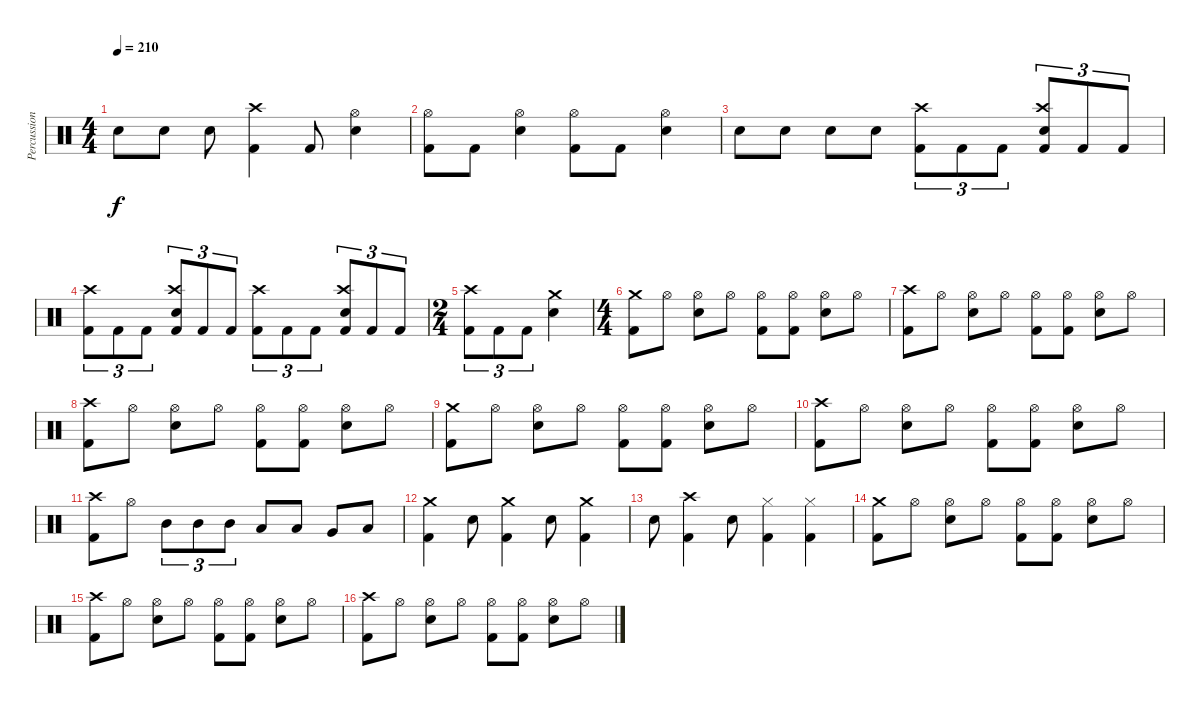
\track ("Percussion" "Percussion") {instrument percussion}
\staff {score}
\articulation defaults
\ts (4 4)
\tempo 210
\clef neutral
\ks c "Snare (hit) 2".8{dy f} "Snare (hit) 2".8 "Snare (hit) 2".8
("Crash high (hit)" "Kick (hit) 2").4 "Kick (hit) 2".8 ("Hi-Hat (open)" "Snare (hit) 2").4 |
("Hi-Hat (open)" "Kick (hit) 2").8 "Kick (hit) 2".8 ("Hi-Hat (open)" "Snare (hit) 2").4 ("Hi-Hat (open)" "Kick (hit) 2").8 "Kick (hit) 2".8 ("Hi-Hat (open)" "Snare (hit) 2").4 |
"Snare (hit) 2".8 "Snare (hit) 2".8 "Snare (hit) 2".8 "Snare (hit) 2".8 ("Crash high (hit)" "Kick (hit) 2").8{tu (3 2)} "Kick (hit) 2".8{tu (3 2)} "Kick (hit) 2".8{tu (3 2)} ("Crash high (hit)" "Snare (hit) 2" "Kick (hit) 2").8{tu (3 2)} "Kick (hit) 2".8{tu (3 2)} "Kick (hit) 2".8{tu (3 2)} |
("Crash high (hit)" "Kick (hit) 2").8{tu (3 2)} "Kick (hit) 2".8{tu (3 2)} "Kick (hit) 2".8{tu (3 2)} ("Crash high (hit)" "Snare (hit) 2" "Kick (hit) 2").8{tu (3 2)} "Kick (hit) 2".8{tu (3 2)} "Kick (hit) 2".8{tu (3 2)} ("Crash high (hit)" "Kick (hit) 2").8{tu (3 2)} "Kick (hit) 2".8{tu (3 2)} "Kick (hit) 2".8{tu (3 2)} ("Crash high (hit)" "Snare (hit) 2" "Kick (hit) 2").8{tu (3 2)} "Kick (hit) 2".8{tu (3 2)} "Kick (hit) 2".8{tu (3 2)} |
\ts (2 4)
("Crash high (hit)" "Kick (hit) 2").8{tu (3 2)} "Kick (hit) 2".8{tu (3 2)} "Kick (hit) 2".8{tu (3 2)} ("Crash medium (hit)" "Snare (hit) 2").4 |
\ts (4 4)
("Crash medium (hit)" "Kick (hit) 2").8 "Hi-Hat (open)".8 ("Hi-Hat (open)" "Snare (hit) 2").8 "Hi-Hat (open)".8 ("Hi-Hat (open)" "Kick (hit) 2").8 ("Hi-Hat (open)" "Kick (hit) 2").8 ("Hi-Hat (open)" "Snare (hit) 2").8 "Hi-Hat (open)".8 |
("Crash high (hit)" "Kick (hit) 2").8 "Hi-Hat (open)".8 ("Hi-Hat (open)" "Snare (hit) 2").8 "Hi-Hat (open)".8 ("Hi-Hat (open)" "Kick (hit) 2").8 ("Hi-Hat (open)" "Kick (hit) 2").8 ("Hi-Hat (open)" "Snare (hit) 2").8 "Hi-Hat (open)".8 |
("Crash high (hit)" "Kick (hit) 2").8 "Hi-Hat (open)".8 ("Hi-Hat (open)" "Snare (hit) 2").8 "Hi-Hat (open)".8 ("Hi-Hat (open)" "Kick (hit) 2").8 ("Hi-Hat (open)" "Kick (hit) 2").8 ("Hi-Hat (open)" "Snare (hit) 2").8 "Hi-Hat (open)".8 |
("Crash medium (hit)" "Kick (hit) 2").8 "Hi-Hat (open)".8 ("Hi-Hat (open)" "Snare (hit) 2").8 "Hi-Hat (open)".8 ("Hi-Hat (open)" "Kick (hit) 2").8 ("Hi-Hat (open)" "Kick (hit) 2").8 ("Hi-Hat (open)" "Snare (hit) 2").8 "Hi-Hat (open)".8 |
("Crash high (hit)" "Kick (hit) 2").8 "Hi-Hat (open)".8 ("Hi-Hat (open)" "Snare (hit) 2").8 "Hi-Hat (open)".8 ("Hi-Hat (open)" "Kick (hit) 2").8 ("Hi-Hat (open)" "Kick (hit) 2").8 ("Hi-Hat (open)" "Snare (hit) 2").8 "Hi-Hat (open)".8 |
("Crash high (hit)" "Kick (hit) 2").8 "Hi-Hat (open)".8 "Mid Tom (hit)".8{tu (3 2)} "Mid Tom (hit)".8{tu (3 2)} "Mid Tom (hit)".8{tu (3 2)} "Low Tom (hit)".8 "Low Tom (hit)".8 "Very Low Tom (hit)".8 "Low Floor Tom (hit)".8 |
("Crash medium (hit)" "Kick (hit) 2").4 "Snare (hit) 2".8 ("Crash medium (hit)" "Kick (hit) 2").4 "Snare (hit) 2".8 ("Crash medium (hit)" "Kick (hit) 2").4 |
"Snare (hit) 2".8 ("Crash high (hit)" "Kick (hit) 2").4 "Snare (hit) 2".8 ("Hi-Hat (closed)" "Kick (hit) 2").4 ("Hi-Hat (closed)" "Kick (hit) 2").4 |
("Crash medium (hit)" "Kick (hit) 2").8 "Hi-Hat (open)".8 ("Hi-Hat (open)" "Snare (hit) 2").8 "Hi-Hat (open)".8 ("Hi-Hat (open)" "Kick (hit) 2").8 ("Hi-Hat (open)" "Kick (hit) 2").8 ("Hi-Hat (open)" "Snare (hit) 2").8 "Hi-Hat (open)".8 |
("Crash high (hit)" "Kick (hit) 2").8 "Hi-Hat (open)".8 ("Hi-Hat (open)" "Snare (hit) 2").8 "Hi-Hat (open)".8 ("Hi-Hat (open)" "Kick (hit) 2").8 ("Hi-Hat (open)" "Kick (hit) 2").8 ("Hi-Hat (open)" "Snare (hit) 2").8 "Hi-Hat (open)".8 |
("Crash high (hit)" "Kick (hit) 2").8 "Hi-Hat (open)".8 ("Hi-Hat (open)" "Snare (hit) 2").8 "Hi-Hat (open)".8 ("Hi-Hat (open)" "Kick (hit) 2").8 ("Hi-Hat (open)" "Kick (hit) 2").8 ("Hi-Hat (open)" "Snare (hit) 2").8 "Hi-Hat (open)".8
